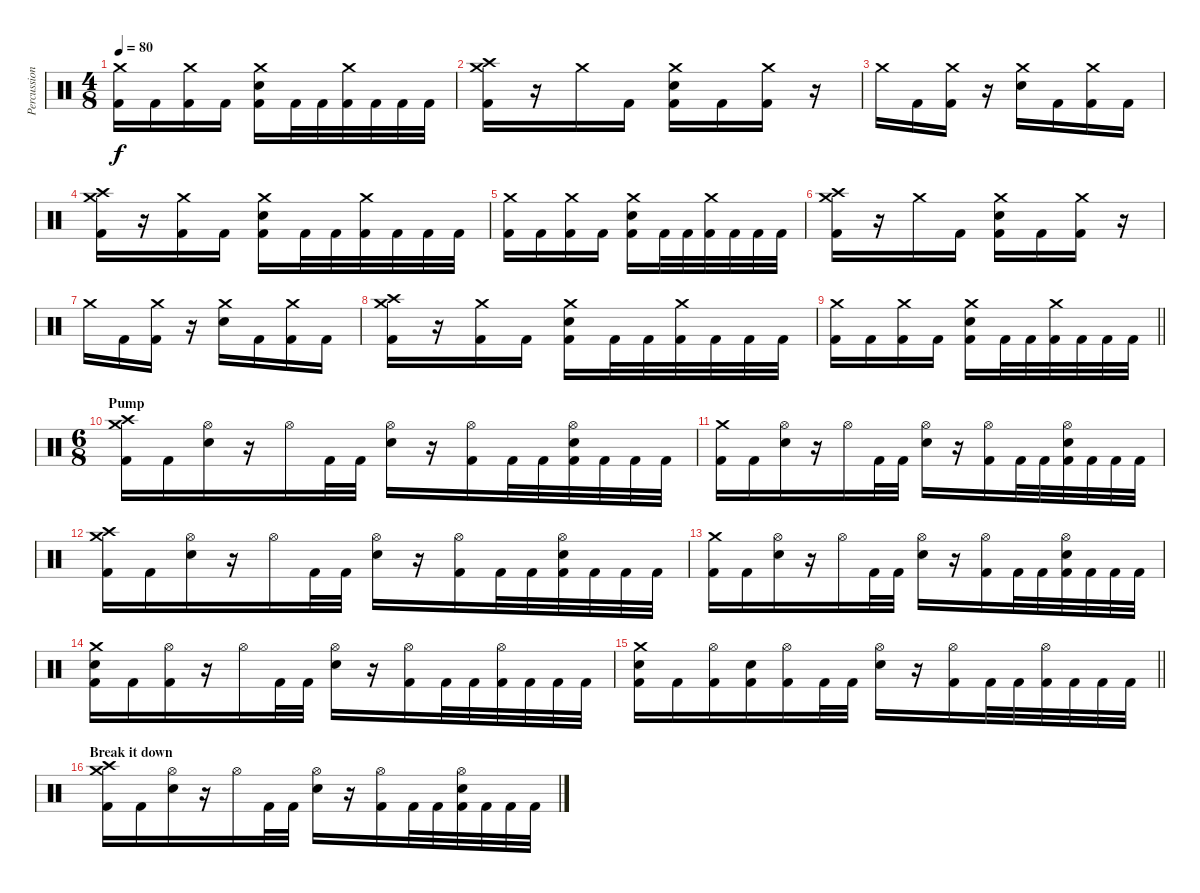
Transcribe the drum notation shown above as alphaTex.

\track ("Percussion" "Percussion") {instrument percussion}
\staff {score}
\articulation defaults
\ts (4 8)
\tempo 80
\clef neutral
\ks c
("Crash medium (hit)" "Kick (hit) 2").16{dy f} "Kick (hit) 2".16 ("Crash medium (hit)" "Kick (hit) 2").16 "Kick (hit) 2".16 ("Crash medium (hit)" "Snare (hit) 2" "Kick (hit) 2").16 "Kick (hit) 2".32 "Kick (hit) 2".32 ("Crash medium (hit)" "Kick (hit) 2").32 "Kick (hit) 2".32 "Kick (hit) 2".32 "Kick (hit) 2".32 |
("Crash high (hit)" "Crash medium (hit)" "Kick (hit) 2").16 r.16 "Crash medium (hit)".16 "Kick (hit) 2".16 ("Crash medium (hit)" "Snare (hit) 2" "Kick (hit) 2").16 "Kick (hit) 2".16 ("Crash medium (hit)" "Kick (hit) 2").16 r.16 |
"Crash medium (hit)".16 "Kick (hit) 2".16 ("Crash medium (hit)" "Kick (hit) 2").16 r.16 ("Crash medium (hit)" "Snare (hit) 2").16 "Kick (hit) 2".16 ("Crash medium (hit)" "Kick (hit) 2").16 "Kick (hit) 2".16 |
("Crash high (hit)" "Crash medium (hit)" "Kick (hit) 2").16 r.16 ("Crash medium (hit)" "Kick (hit) 2").16 "Kick (hit) 2".16 ("Crash medium (hit)" "Snare (hit) 2" "Kick (hit) 2").16 "Kick (hit) 2".32 "Kick (hit) 2".32 ("Crash medium (hit)" "Kick (hit) 2").32 "Kick (hit) 2".32 "Kick (hit) 2".32 "Kick (hit) 2".32 |
("Crash medium (hit)" "Kick (hit) 2").16 "Kick (hit) 2".16 ("Crash medium (hit)" "Kick (hit) 2").16 "Kick (hit) 2".16 ("Crash medium (hit)" "Snare (hit) 2" "Kick (hit) 2").16 "Kick (hit) 2".32 "Kick (hit) 2".32 ("Crash medium (hit)" "Kick (hit) 2").32 "Kick (hit) 2".32 "Kick (hit) 2".32 "Kick (hit) 2".32 |
("Crash high (hit)" "Crash medium (hit)" "Kick (hit) 2").16 r.16 "Crash medium (hit)".16 "Kick (hit) 2".16 ("Crash medium (hit)" "Snare (hit) 2" "Kick (hit) 2").16 "Kick (hit) 2".16 ("Crash medium (hit)" "Kick (hit) 2").16 r.16 |
"Crash medium (hit)".16 "Kick (hit) 2".16 ("Crash medium (hit)" "Kick (hit) 2").16 r.16 ("Crash medium (hit)" "Snare (hit) 2").16 "Kick (hit) 2".16 ("Crash medium (hit)" "Kick (hit) 2").16 "Kick (hit) 2".16 |
("Crash high (hit)" "Crash medium (hit)" "Kick (hit) 2").16 r.16 ("Crash medium (hit)" "Kick (hit) 2").16 "Kick (hit) 2".16 ("Crash medium (hit)" "Snare (hit) 2" "Kick (hit) 2").16 "Kick (hit) 2".32 "Kick (hit) 2".32 ("Crash medium (hit)" "Kick (hit) 2").32 "Kick (hit) 2".32 "Kick (hit) 2".32 "Kick (hit) 2".32 |
\barLineRight lightlight
("Crash medium (hit)" "Kick (hit) 2").16 "Kick (hit) 2".16 ("Crash medium (hit)" "Kick (hit) 2").16 "Kick (hit) 2".16 ("Crash medium (hit)" "Snare (hit) 2" "Kick (hit) 2").16 "Kick (hit) 2".32 "Kick (hit) 2".32 ("Crash medium (hit)" "Kick (hit) 2").32 "Kick (hit) 2".32 "Kick (hit) 2".32 "Kick (hit) 2".32 |
\ts (6 8)
\section ("" "Pump")
("Crash high (hit)" "Crash medium (hit)" "Kick (hit) 2").16 "Kick (hit) 2".16 ("Hi-Hat (open)" "Snare (hit) 2").16 r.16 "Hi-Hat (open)".16 "Kick (hit) 2".32 "Kick (hit) 2".32 ("Hi-Hat (open)" "Snare (hit) 2").16 r.16 ("Hi-Hat (open)" "Kick (hit) 2").16 "Kick (hit) 2".32 "Kick (hit) 2".32 ("Hi-Hat (open)" "Snare (hit) 2" "Kick (hit) 2").32 "Kick (hit) 2".32 "Kick (hit) 2".32 "Kick (hit) 2".32 |
("Crash medium (hit)" "Kick (hit) 2").16 "Kick (hit) 2".16 ("Hi-Hat (open)" "Snare (hit) 2").16 r.16 "Hi-Hat (open)".16 "Kick (hit) 2".32 "Kick (hit) 2".32 ("Hi-Hat (open)" "Snare (hit) 2").16 r.16 ("Hi-Hat (open)" "Kick (hit) 2").16 "Kick (hit) 2".32 "Kick (hit) 2".32 ("Hi-Hat (open)" "Snare (hit) 2" "Kick (hit) 2").32 "Kick (hit) 2".32 "Kick (hit) 2".32 "Kick (hit) 2".32 |
("Crash high (hit)" "Crash medium (hit)" "Kick (hit) 2").16 "Kick (hit) 2".16 ("Hi-Hat (open)" "Snare (hit) 2").16 r.16 "Hi-Hat (open)".16 "Kick (hit) 2".32 "Kick (hit) 2".32 ("Hi-Hat (open)" "Snare (hit) 2").16 r.16 ("Hi-Hat (open)" "Kick (hit) 2").16 "Kick (hit) 2".32 "Kick (hit) 2".32 ("Hi-Hat (open)" "Snare (hit) 2" "Kick (hit) 2").32 "Kick (hit) 2".32 "Kick (hit) 2".32 "Kick (hit) 2".32 |
("Crash medium (hit)" "Kick (hit) 2").16 "Kick (hit) 2".16 ("Hi-Hat (open)" "Snare (hit) 2").16 r.16 "Hi-Hat (open)".16 "Kick (hit) 2".32 "Kick (hit) 2".32 ("Hi-Hat (open)" "Snare (hit) 2").16 r.16 ("Hi-Hat (open)" "Kick (hit) 2").16 "Kick (hit) 2".32 "Kick (hit) 2".32 ("Hi-Hat (open)" "Snare (hit) 2" "Kick (hit) 2").32 "Kick (hit) 2".32 "Kick (hit) 2".32 "Kick (hit) 2".32 |
("Crash medium (hit)" "Snare (hit) 2" "Kick (hit) 2").16 "Kick (hit) 2".16 ("Hi-Hat (open)" "Kick (hit) 2").16 r.16 "Hi-Hat (open)".16 "Kick (hit) 2".32 "Kick (hit) 2".32 ("Hi-Hat (open)" "Snare (hit) 2").16 r.16 ("Hi-Hat (open)" "Kick (hit) 2").16 "Kick (hit) 2".32 "Kick (hit) 2".32 ("Hi-Hat (open)" "Kick (hit) 2").32 "Kick (hit) 2".32 "Kick (hit) 2".32 "Kick (hit) 2".32 |
\barLineRight lightlight
("Crash medium (hit)" "Snare (hit) 2" "Kick (hit) 2").16 "Kick (hit) 2".16 ("Hi-Hat (open)" "Kick (hit) 2").16 ("Snare (hit) 2" "Kick (hit) 2").16 ("Hi-Hat (open)" "Kick (hit) 2").16 "Kick (hit) 2".32 "Kick (hit) 2".32 ("Hi-Hat (open)" "Snare (hit) 2").16 r.16 ("Hi-Hat (open)" "Kick (hit) 2").16 "Kick (hit) 2".32 "Kick (hit) 2".32 ("Hi-Hat (open)" "Kick (hit) 2").32 "Kick (hit) 2".32 "Kick (hit) 2".32 "Kick (hit) 2".32 |
\section ("" "Break it down")
("Crash high (hit)" "Crash medium (hit)" "Kick (hit) 2").16 "Kick (hit) 2".16 ("Hi-Hat (open)" "Snare (hit) 2").16 r.16 "Hi-Hat (open)".16 "Kick (hit) 2".32 "Kick (hit) 2".32 ("Hi-Hat (open)" "Snare (hit) 2").16 r.16 ("Hi-Hat (open)" "Kick (hit) 2").16 "Kick (hit) 2".32 "Kick (hit) 2".32 ("Hi-Hat (open)" "Snare (hit) 2" "Kick (hit) 2").32 "Kick (hit) 2".32 "Kick (hit) 2".32 "Kick (hit) 2".32
